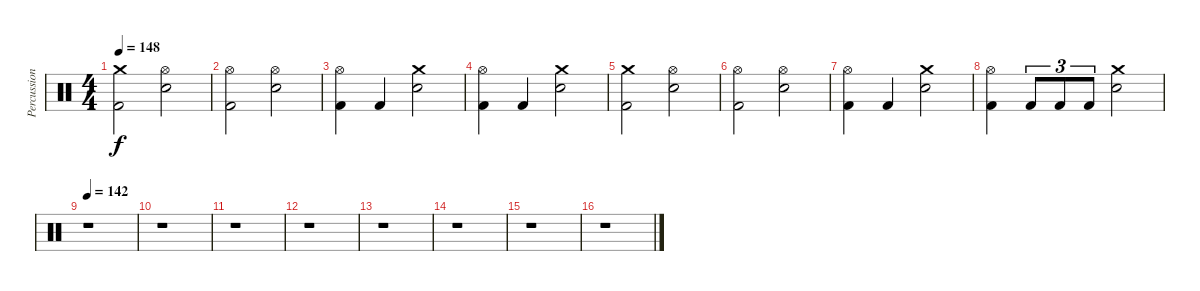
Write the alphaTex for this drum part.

\track ("Percussion" "Percussion") {instrument percussion}
\staff {score}
\articulation defaults
\ts (4 4)
\tempo 148
\clef neutral
\ks c
("Crash medium (hit)" "Kick (hit) 2").2{dy f} ("Hi-Hat (open)" "Electric Snare (hit)").2 |
("Hi-Hat (open)" "Kick (hit) 2").2 ("Hi-Hat (open)" "Electric Snare (hit)").2 |
("Hi-Hat (open)" "Kick (hit) 2").4 "Kick (hit) 2".4 ("Crash medium (hit)" "Electric Snare (hit)").2 |
("Hi-Hat (open)" "Kick (hit) 2").4 "Kick (hit) 2".4 ("Crash medium (hit)" "Electric Snare (hit)").2 |
("Crash medium (hit)" "Kick (hit) 2").2 ("Hi-Hat (open)" "Electric Snare (hit)").2 |
("Hi-Hat (open)" "Kick (hit) 2").2 ("Hi-Hat (open)" "Electric Snare (hit)").2 |
("Hi-Hat (open)" "Kick (hit) 2").4 "Kick (hit) 2".4 ("Crash medium (hit)" "Electric Snare (hit)").2 |
("Hi-Hat (open)" "Kick (hit) 2").4 "Kick (hit) 2".8{tu (3 2)} "Kick (hit) 2".8{tu (3 2)} "Kick (hit) 2".8{tu (3 2)} ("Crash medium (hit)" "Electric Snare (hit)").2 |
\tempo 142
r.1 |
r.1 |
r.1 |
r.1 |
r.1 |
r.1 |
r.1 |
r.1
